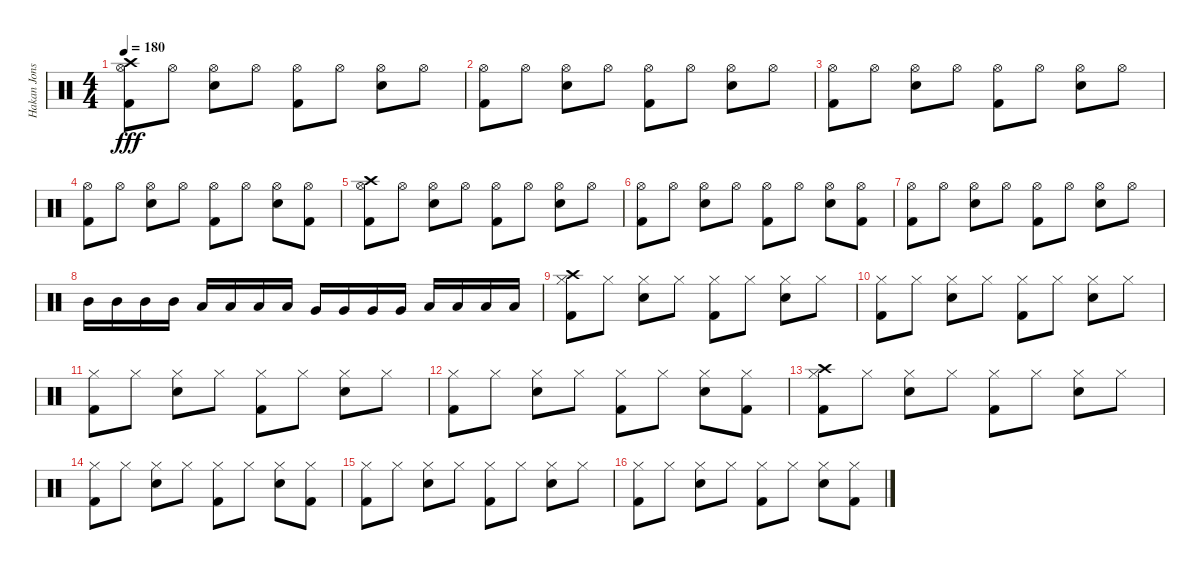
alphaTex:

\track ("Hakan Jonsson" "Hakan Jons") {instrument percussion}
\staff {score}
\articulation defaults
\ts (4 4)
\tempo 180
\clef neutral
\ks c
("Crash high (hit)" "Hi-Hat (open)" "Kick (hit) 2").8{dy fff} "Hi-Hat (open)".8 ("Hi-Hat (open)" "Electric Snare (hit)").8 "Hi-Hat (open)".8 ("Hi-Hat (open)" "Kick (hit) 2").8 "Hi-Hat (open)".8 ("Hi-Hat (open)" "Electric Snare (hit)").8 "Hi-Hat (open)".8 |
("Hi-Hat (open)" "Kick (hit) 2").8 "Hi-Hat (open)".8 ("Hi-Hat (open)" "Electric Snare (hit)").8 "Hi-Hat (open)".8 ("Hi-Hat (open)" "Kick (hit) 2").8 "Hi-Hat (open)".8 ("Hi-Hat (open)" "Electric Snare (hit)").8 "Hi-Hat (open)".8 |
("Hi-Hat (open)" "Kick (hit) 2").8 "Hi-Hat (open)".8 ("Hi-Hat (open)" "Electric Snare (hit)").8 "Hi-Hat (open)".8 ("Hi-Hat (open)" "Kick (hit) 2").8 "Hi-Hat (open)".8 ("Hi-Hat (open)" "Electric Snare (hit)").8 "Hi-Hat (open)".8 |
("Hi-Hat (open)" "Kick (hit) 2").8 "Hi-Hat (open)".8 ("Hi-Hat (open)" "Electric Snare (hit)").8 "Hi-Hat (open)".8 ("Hi-Hat (open)" "Kick (hit) 2").8 "Hi-Hat (open)".8 ("Hi-Hat (open)" "Electric Snare (hit)").8 ("Hi-Hat (open)" "Kick (hit) 2").8 |
("Crash high (hit)" "Hi-Hat (open)" "Kick (hit) 2").8 "Hi-Hat (open)".8 ("Hi-Hat (open)" "Electric Snare (hit)").8 "Hi-Hat (open)".8 ("Hi-Hat (open)" "Kick (hit) 2").8 "Hi-Hat (open)".8 ("Hi-Hat (open)" "Electric Snare (hit)").8 "Hi-Hat (open)".8 |
("Hi-Hat (open)" "Kick (hit) 2").8 "Hi-Hat (open)".8 ("Hi-Hat (open)" "Electric Snare (hit)").8 "Hi-Hat (open)".8 ("Hi-Hat (open)" "Kick (hit) 2").8 "Hi-Hat (open)".8 ("Hi-Hat (open)" "Electric Snare (hit)").8 ("Hi-Hat (open)" "Kick (hit) 2").8 |
("Hi-Hat (open)" "Kick (hit) 2").8 "Hi-Hat (open)".8 ("Hi-Hat (open)" "Electric Snare (hit)").8 "Hi-Hat (open)".8 ("Hi-Hat (open)" "Kick (hit) 2").8 "Hi-Hat (open)".8 ("Hi-Hat (open)" "Electric Snare (hit)").8 "Hi-Hat (open)".8 |
"Mid Tom (hit)".16 "Mid Tom (hit)".16 "Mid Tom (hit)".16 "Mid Tom (hit)".16 "Low Tom (hit)".16 "Low Tom (hit)".16 "Low Tom (hit)".16 "Low Tom (hit)".16 "Very Low Tom (hit)".16 "Very Low Tom (hit)".16 "Very Low Tom (hit)".16 "Very Low Tom (hit)".16 "Low Floor Tom (hit)".16 "Low Floor Tom (hit)".16 "Low Floor Tom (hit)".16 "Low Floor Tom (hit)".16 |
("Crash high (hit)" "Hi-Hat (closed)" "Kick (hit) 2").8 "Hi-Hat (closed)".8 ("Hi-Hat (closed)" "Electric Snare (hit)").8 "Hi-Hat (closed)".8 ("Hi-Hat (closed)" "Kick (hit) 2").8 "Hi-Hat (closed)".8 ("Hi-Hat (closed)" "Electric Snare (hit)").8 "Hi-Hat (closed)".8 |
("Hi-Hat (closed)" "Kick (hit) 2").8 "Hi-Hat (closed)".8 ("Hi-Hat (closed)" "Electric Snare (hit)").8 "Hi-Hat (closed)".8 ("Hi-Hat (closed)" "Kick (hit) 2").8 "Hi-Hat (closed)".8 ("Hi-Hat (closed)" "Electric Snare (hit)").8 "Hi-Hat (closed)".8 |
("Hi-Hat (closed)" "Kick (hit) 2").8 "Hi-Hat (closed)".8 ("Hi-Hat (closed)" "Electric Snare (hit)").8 "Hi-Hat (closed)".8 ("Hi-Hat (closed)" "Kick (hit) 2").8 "Hi-Hat (closed)".8 ("Hi-Hat (closed)" "Electric Snare (hit)").8 "Hi-Hat (closed)".8 |
("Hi-Hat (closed)" "Kick (hit) 2").8 "Hi-Hat (closed)".8 ("Hi-Hat (closed)" "Electric Snare (hit)").8 "Hi-Hat (closed)".8 ("Hi-Hat (closed)" "Kick (hit) 2").8 "Hi-Hat (closed)".8 ("Hi-Hat (closed)" "Electric Snare (hit)").8 ("Hi-Hat (closed)" "Kick (hit) 2").8 |
("Crash high (hit)" "Hi-Hat (closed)" "Kick (hit) 2").8 "Hi-Hat (closed)".8 ("Hi-Hat (closed)" "Electric Snare (hit)").8 "Hi-Hat (closed)".8 ("Hi-Hat (closed)" "Kick (hit) 2").8 "Hi-Hat (closed)".8 ("Hi-Hat (closed)" "Electric Snare (hit)").8 "Hi-Hat (closed)".8 |
("Hi-Hat (closed)" "Kick (hit) 2").8 "Hi-Hat (closed)".8 ("Hi-Hat (closed)" "Electric Snare (hit)").8 "Hi-Hat (closed)".8 ("Hi-Hat (closed)" "Kick (hit) 2").8 "Hi-Hat (closed)".8 ("Hi-Hat (closed)" "Electric Snare (hit)").8 ("Hi-Hat (closed)" "Kick (hit) 2").8 |
("Hi-Hat (closed)" "Kick (hit) 2").8 "Hi-Hat (closed)".8 ("Hi-Hat (closed)" "Electric Snare (hit)").8 "Hi-Hat (closed)".8 ("Hi-Hat (closed)" "Kick (hit) 2").8 "Hi-Hat (closed)".8 ("Hi-Hat (closed)" "Electric Snare (hit)").8 "Hi-Hat (closed)".8 |
("Hi-Hat (closed)" "Kick (hit) 2").8 "Hi-Hat (closed)".8 ("Hi-Hat (closed)" "Electric Snare (hit)").8 "Hi-Hat (closed)".8 ("Hi-Hat (closed)" "Kick (hit) 2").8 "Hi-Hat (closed)".8 ("Hi-Hat (closed)" "Electric Snare (hit)").8 ("Hi-Hat (closed)" "Kick (hit) 2").8
